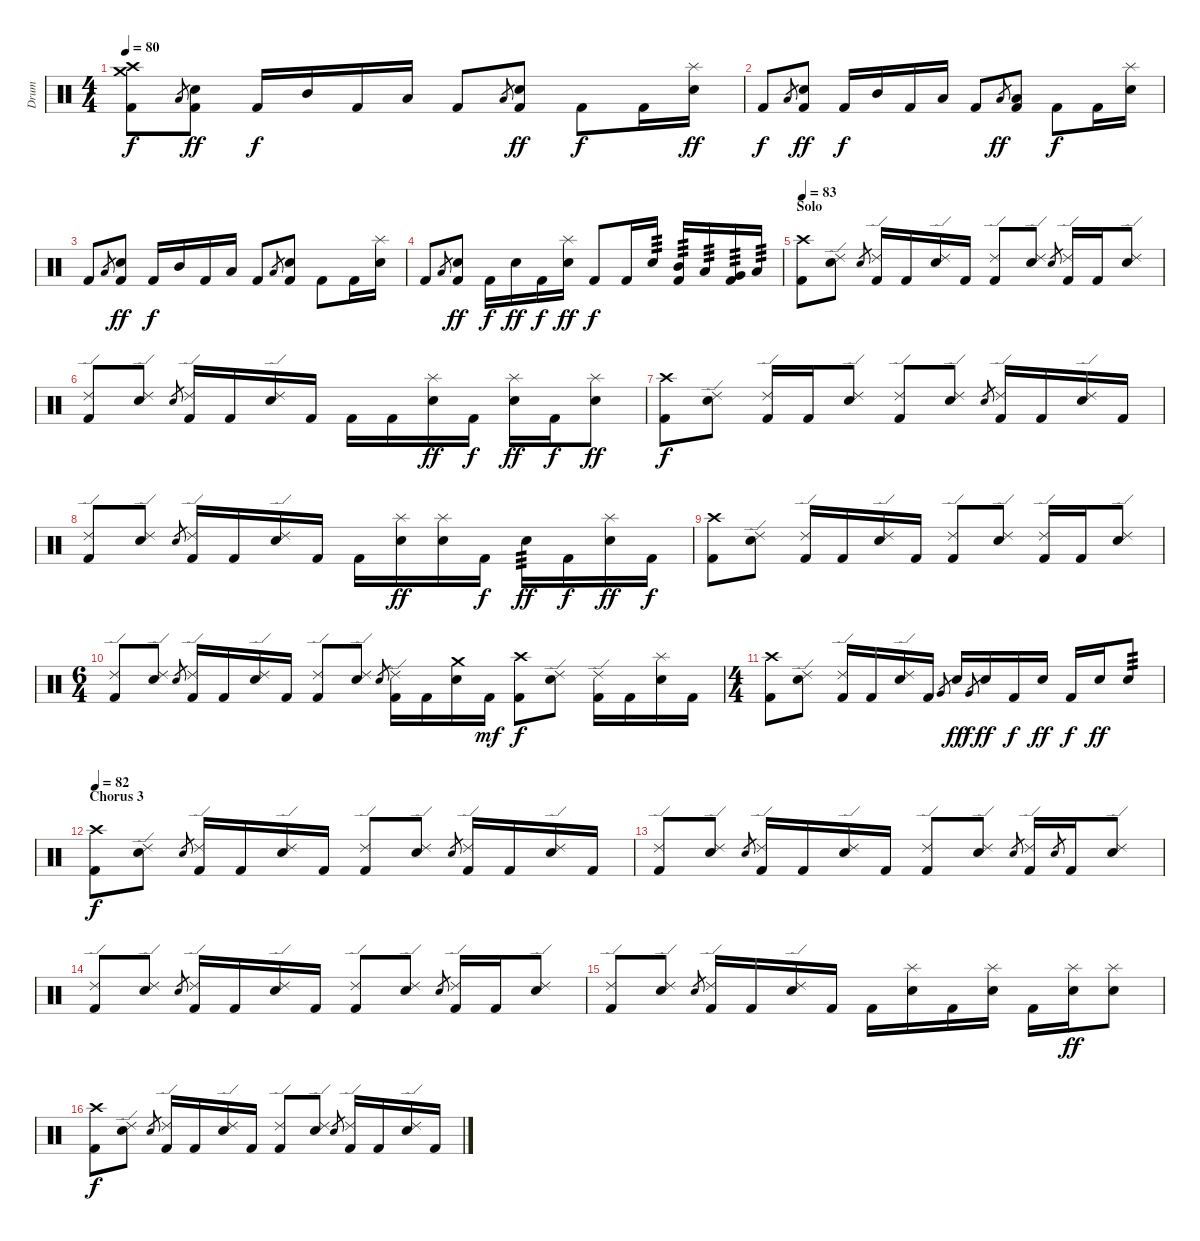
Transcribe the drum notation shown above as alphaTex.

\track ("Drum" "Drum") {instrument percussion}
\staff {score}
\articulation defaults
\ts (4 4)
\section ("" "")
\tempo 80
\clef neutral
\ks c
("Kick (hit) 2" "Crash high (hit)" "Crash medium (hit)").8{dy f} "Low Floor Tom (hit)".8{gr} ("Electric Snare (hit)" "Kick (hit) 2").8{dy ff} "Kick (hit) 2".16{dy f} "Mid Tom (hit)".16 "Kick (hit) 2".16 "Low Tom (hit)".16 "Kick (hit) 2".8 "Low Floor Tom (hit)".8{gr} ("Electric Snare (hit)" "Kick (hit) 2").8{dy ff} "Kick (hit) 2".8{dy f} "Kick (hit) 2".16 ("Splash (hit)" "Electric Snare (hit)").16{dy ff} |
"Kick (hit) 2".8{dy f} "Low Floor Tom (hit)".8{gr} ("Electric Snare (hit)" "Kick (hit) 2").8{dy ff} "Kick (hit) 2".16{dy f} "Mid Tom (hit)".16 "Kick (hit) 2".16 "Low Tom (hit)".16 "Kick (hit) 2".8 "Low Floor Tom (hit)".8{gr dy ff} ("Low Floor Tom (hit)" "Kick (hit) 2").8 "Kick (hit) 2".8{dy f} "Kick (hit) 2".16 ("Splash (hit)" "Electric Snare (hit)").16 |
"Kick (hit) 2".8 "Low Floor Tom (hit)".8{gr} ("Electric Snare (hit)" "Kick (hit) 2").8{dy ff} "Kick (hit) 2".16{dy f} "Mid Tom (hit)".16 "Kick (hit) 2".16 "Low Tom (hit)".16 "Kick (hit) 2".8 "Low Floor Tom (hit)".8{gr} ("Electric Snare (hit)" "Kick (hit) 2").8 "Kick (hit) 2".8 "Kick (hit) 2".16 ("Splash (hit)" "Electric Snare (hit)").16 |
"Kick (hit) 2".8 "Low Floor Tom (hit)".8{gr} ("Electric Snare (hit)" "Kick (hit) 2").8{dy ff} "Kick (hit) 2".16{dy f} "Electric Snare (hit)".16{dy ff} "Kick (hit) 2".16{dy f} ("Splash (hit)" "Electric Snare (hit)").16{dy ff} "Kick (hit) 2".8{dy f} "Kick (hit) 2".16 "Electric Snare (hit)".16{tp 3} ("Mid Tom (hit)" "Kick (hit) 2").16{tp 3} "Low Tom (hit)".16{tp 3} ("Very Low Tom (hit)" "Kick (hit) 2").16{tp 3} "Low Floor Tom (hit)".16{tp 3} |
\section ("" "Solo")
\tempo 83
("Kick (hit) 2" "Crash high (hit)").8 ("Ride (edge) 2" "Electric Snare (hit)").8 "Electric Snare (hit)".8{gr} ("Ride (edge) 2" "Kick (hit) 2").16 "Kick (hit) 2".16 ("Ride (edge) 2" "Electric Snare (hit)").16 "Kick (hit) 2".16 ("Ride (edge) 2" "Kick (hit) 2").8 ("Ride (edge) 2" "Electric Snare (hit)").8 "Electric Snare (hit)".8{gr} ("Ride (edge) 2" "Kick (hit) 2").16 "Kick (hit) 2".16 ("Ride (edge) 2" "Electric Snare (hit)").8 |
("Ride (edge) 2" "Kick (hit) 2").8 ("Ride (edge) 2" "Electric Snare (hit)").8 "Electric Snare (hit)".8{gr} ("Ride (edge) 2" "Kick (hit) 2").16 "Kick (hit) 2".16 ("Ride (edge) 2" "Electric Snare (hit)").16 "Kick (hit) 2".16 "Kick (hit) 2".16 "Kick (hit) 2".16 ("Splash (hit)" "Electric Snare (hit)").16{dy ff} "Kick (hit) 2".16{dy f} ("Splash (hit)" "Electric Snare (hit)").16{dy ff} "Kick (hit) 2".16{dy f} ("Splash (hit)" "Electric Snare (hit)").8{dy ff} |
("Kick (hit) 2" "Crash high (hit)").8{dy f} ("Ride (edge) 2" "Electric Snare (hit)").8 ("Ride (edge) 2" "Kick (hit) 2").16 "Kick (hit) 2".16 ("Ride (edge) 2" "Electric Snare (hit)").8 ("Ride (edge) 2" "Kick (hit) 2").8 ("Ride (edge) 2" "Electric Snare (hit)").8 "Electric Snare (hit)".8{gr} ("Ride (edge) 2" "Kick (hit) 2").16 "Kick (hit) 2".16 ("Ride (edge) 2" "Electric Snare (hit)").16 "Kick (hit) 2".16 |
("Ride (edge) 2" "Kick (hit) 2").8 ("Ride (edge) 2" "Electric Snare (hit)").8 "Electric Snare (hit)".8{gr} ("Ride (edge) 2" "Kick (hit) 2").16 "Kick (hit) 2".16 ("Ride (edge) 2" "Electric Snare (hit)").16 "Kick (hit) 2".16 "Kick (hit) 2".16 ("Splash (hit)" "Electric Snare (hit)").16{dy ff} ("Splash (hit)" "Electric Snare (hit)").16 "Kick (hit) 2".16{dy f} "Electric Snare (hit)".16{tp 3 dy ff} "Kick (hit) 2".16{dy f} ("Splash (hit)" "Electric Snare (hit)").16{dy ff} "Kick (hit) 2".16{dy f} |
\section ("" "")
("Kick (hit) 2" "Crash high (hit)").8 ("Ride (edge) 2" "Electric Snare (hit)").8 ("Ride (edge) 2" "Kick (hit) 2").16 "Kick (hit) 2".16 ("Ride (edge) 2" "Electric Snare (hit)").16 "Kick (hit) 2".16 ("Ride (edge) 2" "Kick (hit) 2").8 ("Ride (edge) 2" "Electric Snare (hit)").8 ("Ride (edge) 2" "Kick (hit) 2").16 "Kick (hit) 2".16 ("Ride (edge) 2" "Electric Snare (hit)").8 |
\ts (6 4)
("Ride (edge) 2" "Kick (hit) 2").8 ("Ride (edge) 2" "Electric Snare (hit)").8 "Electric Snare (hit)".8{gr} ("Ride (edge) 2" "Kick (hit) 2").16 "Kick (hit) 2".16 ("Ride (edge) 2" "Electric Snare (hit)").16 "Kick (hit) 2".16 ("Ride (edge) 2" "Kick (hit) 2").8 ("Ride (edge) 2" "Electric Snare (hit)").8 "Electric Snare (hit)".8{gr} ("Ride (edge) 2" "Kick (hit) 2").16 "Kick (hit) 2".16 ("Electric Snare (hit)" "Crash medium (hit)").16 "Kick (hit) 2".16{dy mf} ("Kick (hit) 2" "Crash high (hit)").8{dy f} ("Ride (edge) 2" "Electric Snare (hit)").8 ("Ride (edge) 2" "Kick (hit) 2").16 "Kick (hit) 2".16 ("Splash (hit)" "Electric Snare (hit)").16 "Kick (hit) 2".16 |
\ts (4 4)
("Kick (hit) 2" "Crash high (hit)").8 ("Ride (edge) 2" "Electric Snare (hit)").8 ("Ride (edge) 2" "Kick (hit) 2").16 "Kick (hit) 2".16 ("Ride (edge) 2" "Electric Snare (hit)").16 "Kick (hit) 2".16 "Very Low Tom (hit)".8{gr} "Electric Snare (hit)".16{dy ff} "Very Low Tom (hit)".8{gr dy f} "Electric Snare (hit)".16{dy ff} "Kick (hit) 2".16{dy f} "Electric Snare (hit)".16{dy ff} "Kick (hit) 2".16{dy f} "Electric Snare (hit)".16{dy ff} "Electric Snare (hit)".8{tp 3} |
\section ("" "Chorus 3")
\tempo 82
("Kick (hit) 2" "Crash high (hit)").8{dy f} ("Ride (edge) 2" "Electric Snare (hit)").8 "Electric Snare (hit)".8{gr} ("Ride (edge) 2" "Kick (hit) 2").16 "Kick (hit) 2".16 ("Ride (edge) 2" "Electric Snare (hit)").16 "Kick (hit) 2".16 ("Ride (edge) 2" "Kick (hit) 2").8 ("Ride (edge) 2" "Electric Snare (hit)").8 "Electric Snare (hit)".8{gr} ("Ride (edge) 2" "Kick (hit) 2").16 "Kick (hit) 2".16 ("Ride (edge) 2" "Electric Snare (hit)").16 "Kick (hit) 2".16 |
("Ride (edge) 2" "Kick (hit) 2").8 ("Ride (edge) 2" "Electric Snare (hit)").8 "Electric Snare (hit)".8{gr} ("Ride (edge) 2" "Kick (hit) 2").16 "Kick (hit) 2".16 ("Ride (edge) 2" "Electric Snare (hit)").16 "Kick (hit) 2".16 ("Ride (edge) 2" "Kick (hit) 2").8 ("Ride (edge) 2" "Electric Snare (hit)").8 "Electric Snare (hit)".8{gr} ("Ride (edge) 2" "Kick (hit) 2").16 "Electric Snare (hit)".8{gr} "Kick (hit) 2".16 ("Ride (edge) 2" "Electric Snare (hit)").8 |
("Ride (edge) 2" "Kick (hit) 2").8 ("Ride (edge) 2" "Electric Snare (hit)").8 "Electric Snare (hit)".8{gr} ("Ride (edge) 2" "Kick (hit) 2").16 "Kick (hit) 2".16 ("Ride (edge) 2" "Electric Snare (hit)").16 "Kick (hit) 2".16 ("Ride (edge) 2" "Kick (hit) 2").8 ("Ride (edge) 2" "Electric Snare (hit)").8 "Electric Snare (hit)".8{gr} ("Ride (edge) 2" "Kick (hit) 2").16 "Kick (hit) 2".16 ("Ride (edge) 2" "Electric Snare (hit)").8 |
("Ride (edge) 2" "Kick (hit) 2").8 ("Ride (edge) 2" "Electric Snare (hit)").8 "Electric Snare (hit)".8{gr} ("Ride (edge) 2" "Kick (hit) 2").16 "Kick (hit) 2".16 ("Ride (edge) 2" "Electric Snare (hit)").16 "Kick (hit) 2".16 "Kick (hit) 2".16 ("Splash (hit)" "Electric Snare (hit)").16 "Kick (hit) 2".16 ("Splash (hit)" "Electric Snare (hit)").16 "Kick (hit) 2".16 ("Splash (hit)" "Electric Snare (hit)").16{dy ff} ("Splash (hit)" "Electric Snare (hit)").8 |
\section ("" "")
("Kick (hit) 2" "Crash high (hit)").8{dy f} ("Ride (edge) 2" "Electric Snare (hit)").8 "Electric Snare (hit)".8{gr} ("Ride (edge) 2" "Kick (hit) 2").16 "Kick (hit) 2".16 ("Ride (edge) 2" "Electric Snare (hit)").16 "Kick (hit) 2".16 ("Ride (edge) 2" "Kick (hit) 2").8 ("Ride (edge) 2" "Electric Snare (hit)").8 "Electric Snare (hit)".8{gr} ("Ride (edge) 2" "Kick (hit) 2").16 "Kick (hit) 2".16 ("Ride (edge) 2" "Electric Snare (hit)").16 "Kick (hit) 2".16
